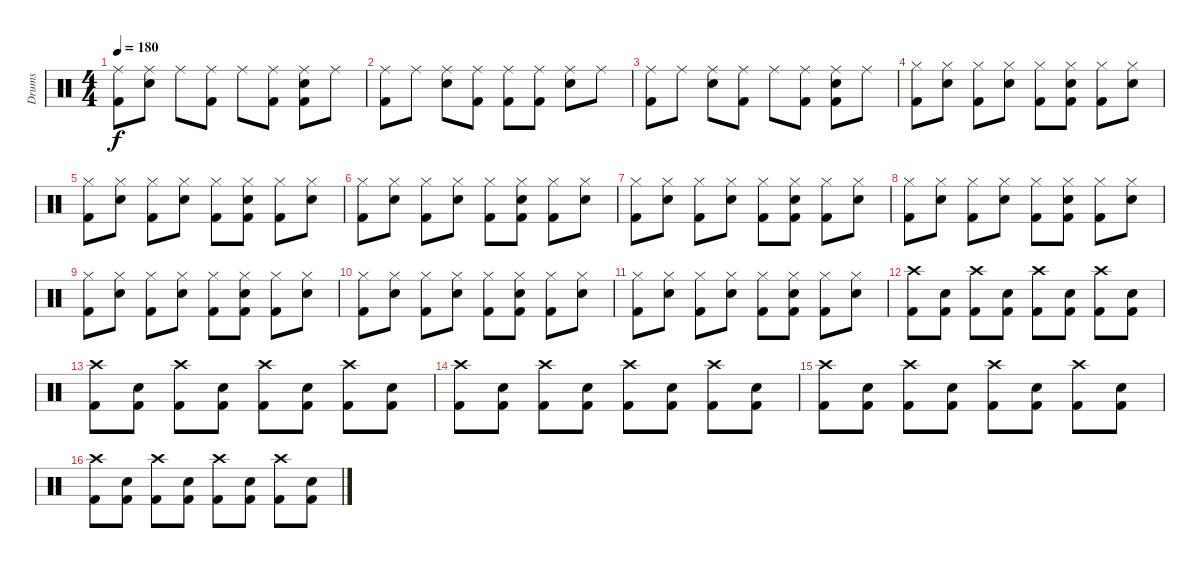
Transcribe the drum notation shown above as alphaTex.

\track ("Drums" "Drums") {instrument percussion}
\staff {score}
\articulation defaults
\ts (4 4)
\tempo 180
\clef neutral
\ks c
("Ride (middle)" "Kick (hit) 2").8{dy f} ("Ride (middle)" "Snare (hit) 2").8 "Ride (middle)".8 ("Ride (middle)" "Kick (hit) 2").8 "Ride (middle)".8 ("Ride (middle)" "Kick (hit) 2").8 ("Ride (middle)" "Snare (hit) 2" "Kick (hit) 2").8 "Ride (middle)".8 |
("Ride (middle)" "Kick (hit) 2").8 "Ride (middle)".8 ("Ride (middle)" "Snare (hit) 2").8 ("Ride (middle)" "Kick (hit) 2").8 ("Ride (middle)" "Kick (hit) 2").8 ("Ride (middle)" "Kick (hit) 2").8 ("Ride (middle)" "Snare (hit) 2").8 "Ride (middle)".8 |
("Ride (middle)" "Kick (hit) 2").8 "Ride (middle)".8 ("Ride (middle)" "Snare (hit) 2").8 ("Ride (middle)" "Kick (hit) 2").8 "Ride (middle)".8 ("Ride (middle)" "Kick (hit) 2").8 ("Ride (middle)" "Snare (hit) 2" "Kick (hit) 2").8 "Ride (middle)".8 |
("Hi-Hat (closed)" "Kick (hit) 2").8 ("Hi-Hat (closed)" "Snare (hit) 2").8 ("Hi-Hat (closed)" "Kick (hit) 2").8 ("Hi-Hat (closed)" "Snare (hit) 2").8 ("Hi-Hat (closed)" "Kick (hit) 2").8 ("Hi-Hat (closed)" "Snare (hit) 2" "Kick (hit) 2").8 ("Hi-Hat (closed)" "Kick (hit) 2").8 ("Hi-Hat (closed)" "Snare (hit) 2").8 |
("Hi-Hat (closed)" "Kick (hit) 2").8 ("Hi-Hat (closed)" "Snare (hit) 2").8 ("Hi-Hat (closed)" "Kick (hit) 2").8 ("Hi-Hat (closed)" "Snare (hit) 2").8 ("Hi-Hat (closed)" "Kick (hit) 2").8 ("Hi-Hat (closed)" "Snare (hit) 2" "Kick (hit) 2").8 ("Hi-Hat (closed)" "Kick (hit) 2").8 ("Hi-Hat (closed)" "Snare (hit) 2").8 |
("Hi-Hat (closed)" "Kick (hit) 2").8 ("Hi-Hat (closed)" "Snare (hit) 2").8 ("Hi-Hat (closed)" "Kick (hit) 2").8 ("Hi-Hat (closed)" "Snare (hit) 2").8 ("Hi-Hat (closed)" "Kick (hit) 2").8 ("Hi-Hat (closed)" "Snare (hit) 2" "Kick (hit) 2").8 ("Hi-Hat (closed)" "Kick (hit) 2").8 ("Hi-Hat (closed)" "Snare (hit) 2").8 |
("Hi-Hat (closed)" "Kick (hit) 2").8 ("Hi-Hat (closed)" "Snare (hit) 2").8 ("Hi-Hat (closed)" "Kick (hit) 2").8 ("Hi-Hat (closed)" "Snare (hit) 2").8 ("Hi-Hat (closed)" "Kick (hit) 2").8 ("Hi-Hat (closed)" "Snare (hit) 2" "Kick (hit) 2").8 ("Hi-Hat (closed)" "Kick (hit) 2").8 ("Hi-Hat (closed)" "Snare (hit) 2").8 |
("Hi-Hat (closed)" "Kick (hit) 2").8 ("Hi-Hat (closed)" "Snare (hit) 2").8 ("Hi-Hat (closed)" "Kick (hit) 2").8 ("Hi-Hat (closed)" "Snare (hit) 2").8 ("Hi-Hat (closed)" "Kick (hit) 2").8 ("Hi-Hat (closed)" "Snare (hit) 2" "Kick (hit) 2").8 ("Hi-Hat (closed)" "Kick (hit) 2").8 ("Hi-Hat (closed)" "Snare (hit) 2").8 |
("Hi-Hat (closed)" "Kick (hit) 2").8 ("Hi-Hat (closed)" "Snare (hit) 2").8 ("Hi-Hat (closed)" "Kick (hit) 2").8 ("Hi-Hat (closed)" "Snare (hit) 2").8 ("Hi-Hat (closed)" "Kick (hit) 2").8 ("Hi-Hat (closed)" "Snare (hit) 2" "Kick (hit) 2").8 ("Hi-Hat (closed)" "Kick (hit) 2").8 ("Hi-Hat (closed)" "Snare (hit) 2").8 |
("Hi-Hat (closed)" "Kick (hit) 2").8 ("Hi-Hat (closed)" "Snare (hit) 2").8 ("Hi-Hat (closed)" "Kick (hit) 2").8 ("Hi-Hat (closed)" "Snare (hit) 2").8 ("Hi-Hat (closed)" "Kick (hit) 2").8 ("Hi-Hat (closed)" "Snare (hit) 2" "Kick (hit) 2").8 ("Hi-Hat (closed)" "Kick (hit) 2").8 ("Hi-Hat (closed)" "Snare (hit) 2").8 |
("Hi-Hat (closed)" "Kick (hit) 2").8 ("Hi-Hat (closed)" "Snare (hit) 2").8 ("Hi-Hat (closed)" "Kick (hit) 2").8 ("Hi-Hat (closed)" "Snare (hit) 2").8 ("Hi-Hat (closed)" "Kick (hit) 2").8 ("Hi-Hat (closed)" "Snare (hit) 2" "Kick (hit) 2").8 ("Hi-Hat (closed)" "Kick (hit) 2").8 ("Hi-Hat (closed)" "Snare (hit) 2").8 |
("Crash high (hit)" "Kick (hit) 2").8 ("Snare (hit) 2" "Kick (hit) 2").8 ("Crash high (hit)" "Kick (hit) 2").8 ("Snare (hit) 2" "Kick (hit) 2").8 ("Crash high (hit)" "Kick (hit) 2").8 ("Snare (hit) 2" "Kick (hit) 2").8 ("Crash high (hit)" "Kick (hit) 2").8 ("Snare (hit) 2" "Kick (hit) 2").8 |
("Crash high (hit)" "Kick (hit) 2").8 ("Snare (hit) 2" "Kick (hit) 2").8 ("Crash high (hit)" "Kick (hit) 2").8 ("Snare (hit) 2" "Kick (hit) 2").8 ("Crash high (hit)" "Kick (hit) 2").8 ("Snare (hit) 2" "Kick (hit) 2").8 ("Crash high (hit)" "Kick (hit) 2").8 ("Snare (hit) 2" "Kick (hit) 2").8 |
("Crash high (hit)" "Kick (hit) 2").8 ("Snare (hit) 2" "Kick (hit) 2").8 ("Crash high (hit)" "Kick (hit) 2").8 ("Snare (hit) 2" "Kick (hit) 2").8 ("Crash high (hit)" "Kick (hit) 2").8 ("Snare (hit) 2" "Kick (hit) 2").8 ("Crash high (hit)" "Kick (hit) 2").8 ("Snare (hit) 2" "Kick (hit) 2").8 |
("Crash high (hit)" "Kick (hit) 2").8 ("Snare (hit) 2" "Kick (hit) 2").8 ("Crash high (hit)" "Kick (hit) 2").8 ("Snare (hit) 2" "Kick (hit) 2").8 ("Crash high (hit)" "Kick (hit) 2").8 ("Snare (hit) 2" "Kick (hit) 2").8 ("Crash high (hit)" "Kick (hit) 2").8 ("Snare (hit) 2" "Kick (hit) 2").8 |
("Crash high (hit)" "Kick (hit) 2").8 ("Snare (hit) 2" "Kick (hit) 2").8 ("Crash high (hit)" "Kick (hit) 2").8 ("Snare (hit) 2" "Kick (hit) 2").8 ("Crash high (hit)" "Kick (hit) 2").8 ("Snare (hit) 2" "Kick (hit) 2").8 ("Crash high (hit)" "Kick (hit) 2").8 ("Snare (hit) 2" "Kick (hit) 2").8
